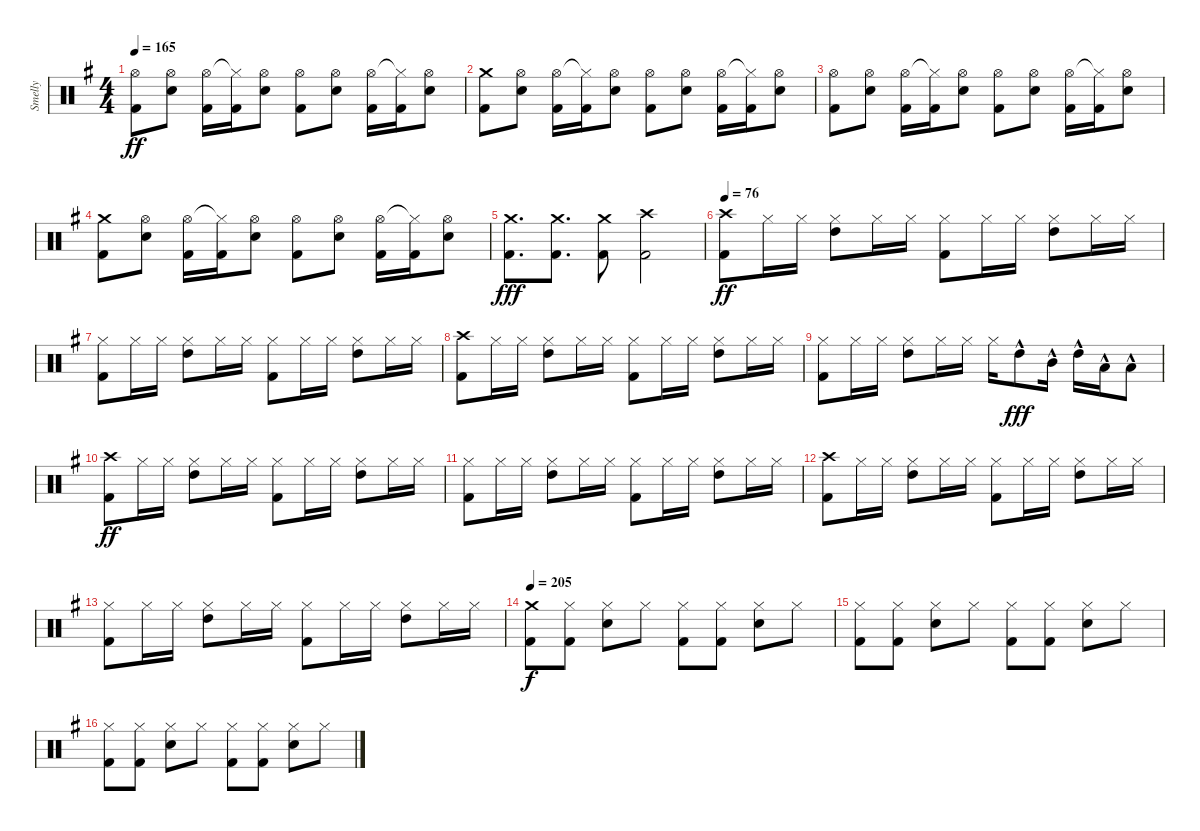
\track ("Smelly" "Smelly") {instrument percussion}
\staff {score}
\articulation defaults
\ts (4 4)
\tempo 165
\clef neutral
\ks eminor
("Hi-Hat (open)" "Kick (hit) 2").8{dy ff} ("Hi-Hat (open)" "Electric Snare (hit)").8 ("Hi-Hat (open)" "Kick (hit) 2").16 ("Hi-Hat (closed)"{t} "Kick (hit) 2").16 ("Hi-Hat (open)" "Electric Snare (hit)").8 ("Hi-Hat (open)" "Kick (hit) 2").8 ("Hi-Hat (open)" "Electric Snare (hit)").8 ("Hi-Hat (open)" "Kick (hit) 2").16 ("Hi-Hat (closed)"{t} "Kick (hit) 2").16 ("Hi-Hat (open)" "Electric Snare (hit)").8 |
("Crash medium (hit)" "Kick (hit) 2").8 ("Hi-Hat (open)" "Electric Snare (hit)").8 ("Hi-Hat (open)" "Kick (hit) 2").16 ("Hi-Hat (closed)"{t} "Kick (hit) 2").16 ("Hi-Hat (open)" "Electric Snare (hit)").8 ("Hi-Hat (open)" "Kick (hit) 2").8 ("Hi-Hat (open)" "Electric Snare (hit)").8 ("Hi-Hat (open)" "Kick (hit) 2").16 ("Hi-Hat (closed)"{t} "Kick (hit) 2").16 ("Hi-Hat (open)" "Electric Snare (hit)").8 |
("Hi-Hat (open)" "Kick (hit) 2").8 ("Hi-Hat (open)" "Electric Snare (hit)").8 ("Hi-Hat (open)" "Kick (hit) 2").16 ("Hi-Hat (closed)"{t} "Kick (hit) 2").16 ("Hi-Hat (open)" "Electric Snare (hit)").8 ("Hi-Hat (open)" "Kick (hit) 2").8 ("Hi-Hat (open)" "Electric Snare (hit)").8 ("Hi-Hat (open)" "Kick (hit) 2").16 ("Hi-Hat (closed)"{t} "Kick (hit) 2").16 ("Hi-Hat (open)" "Electric Snare (hit)").8 |
("Crash medium (hit)" "Kick (hit) 2").8 ("Hi-Hat (open)" "Electric Snare (hit)").8 ("Hi-Hat (open)" "Kick (hit) 2").16 ("Hi-Hat (closed)"{t} "Kick (hit) 2").16 ("Hi-Hat (open)" "Electric Snare (hit)").8 ("Hi-Hat (open)" "Kick (hit) 2").8 ("Hi-Hat (open)" "Electric Snare (hit)").8 ("Hi-Hat (open)" "Kick (hit) 2").16 ("Hi-Hat (closed)"{t} "Kick (hit) 2").16 ("Hi-Hat (open)" "Electric Snare (hit)").8 |
("Crash medium (hit)" "Kick (hit) 2").8{d dy fff} ("Crash medium (hit)" "Kick (hit) 2").8{d} ("Crash medium (hit)" "Kick (hit) 2").8 ("Crash high (hit)" "Kick (hit) 2").2 |
\tempo 76
("Crash high (hit)" "Kick (hit) 2").8{dy ff volume 16} "Hi-Hat (closed)".16 "Hi-Hat (closed)".16 ("Hi-Hat (closed)" "High Tom (hit)").8 "Hi-Hat (closed)".16 "Hi-Hat (closed)".16 ("Hi-Hat (closed)" "Kick (hit) 2").8 "Hi-Hat (closed)".16 "Hi-Hat (closed)".16 ("Hi-Hat (closed)" "High Tom (hit)").8 "Hi-Hat (closed)".16 "Hi-Hat (closed)".16 |
("Hi-Hat (closed)" "Kick (hit) 2").8 "Hi-Hat (closed)".16 "Hi-Hat (closed)".16 ("Hi-Hat (closed)" "High Tom (hit)").8 "Hi-Hat (closed)".16 "Hi-Hat (closed)".16 ("Hi-Hat (closed)" "Kick (hit) 2").8 "Hi-Hat (closed)".16 "Hi-Hat (closed)".16 ("Hi-Hat (closed)" "High Tom (hit)").8 "Hi-Hat (closed)".16 "Hi-Hat (closed)".16 |
("Crash high (hit)" "Kick (hit) 2").8 "Hi-Hat (closed)".16 "Hi-Hat (closed)".16 ("Hi-Hat (closed)" "High Tom (hit)").8 "Hi-Hat (closed)".16 "Hi-Hat (closed)".16 ("Hi-Hat (closed)" "Kick (hit) 2").8 "Hi-Hat (closed)".16 "Hi-Hat (closed)".16 ("Hi-Hat (closed)" "High Tom (hit)").8 "Hi-Hat (closed)".16 "Hi-Hat (closed)".16 |
("Hi-Hat (closed)" "Kick (hit) 2").8 "Hi-Hat (closed)".16 "Hi-Hat (closed)".16 ("Hi-Hat (closed)" "High Tom (hit)").8 "Hi-Hat (closed)".16 "Hi-Hat (closed)".16 "Hi-Hat (closed)".16 "High Tom (hit)"{hac}.8{dy fff} "Mid Tom (hit)"{hac}.16 "High Tom (hit)"{hac}.16 "Low Tom (hit)"{hac}.16 "Low Floor Tom (hit)"{hac}.8 |
("Crash high (hit)" "Kick (hit) 2").8{dy ff} "Hi-Hat (closed)".16 "Hi-Hat (closed)".16 ("Hi-Hat (closed)" "High Tom (hit)").8 "Hi-Hat (closed)".16 "Hi-Hat (closed)".16 ("Hi-Hat (closed)" "Kick (hit) 2").8 "Hi-Hat (closed)".16 "Hi-Hat (closed)".16 ("Hi-Hat (closed)" "High Tom (hit)").8 "Hi-Hat (closed)".16 "Hi-Hat (closed)".16 |
("Hi-Hat (closed)" "Kick (hit) 2").8 "Hi-Hat (closed)".16 "Hi-Hat (closed)".16 ("Hi-Hat (closed)" "High Tom (hit)").8 "Hi-Hat (closed)".16 "Hi-Hat (closed)".16 ("Hi-Hat (closed)" "Kick (hit) 2").8 "Hi-Hat (closed)".16 "Hi-Hat (closed)".16 ("Hi-Hat (closed)" "High Tom (hit)").8 "Hi-Hat (closed)".16 "Hi-Hat (closed)".16 |
("Crash high (hit)" "Kick (hit) 2").8 "Hi-Hat (closed)".16 "Hi-Hat (closed)".16 ("Hi-Hat (closed)" "High Tom (hit)").8 "Hi-Hat (closed)".16 "Hi-Hat (closed)".16 ("Hi-Hat (closed)" "Kick (hit) 2").8 "Hi-Hat (closed)".16 "Hi-Hat (closed)".16 ("Hi-Hat (closed)" "High Tom (hit)").8 "Hi-Hat (closed)".16 "Hi-Hat (closed)".16 |
("Hi-Hat (closed)" "Kick (hit) 2").8 "Hi-Hat (closed)".16 "Hi-Hat (closed)".16 ("Hi-Hat (closed)" "High Tom (hit)").8 "Hi-Hat (closed)".16 "Hi-Hat (closed)".16 ("Hi-Hat (closed)" "Kick (hit) 2").8 "Hi-Hat (closed)".16 "Hi-Hat (closed)".16 ("Hi-Hat (closed)" "High Tom (hit)").8 "Hi-Hat (closed)".16 "Hi-Hat (closed)".16 |
\tempo 205
("Crash medium (hit)" "Kick (hit) 2").8{dy f} ("Hi-Hat (closed)" "Kick (hit) 2").8 ("Hi-Hat (closed)" "Snare (hit) 2").8 "Hi-Hat (closed)".8 ("Hi-Hat (closed)" "Kick (hit) 2").8 ("Hi-Hat (closed)" "Kick (hit) 2").8 ("Hi-Hat (closed)" "Snare (hit) 2").8 "Hi-Hat (closed)".8 |
("Hi-Hat (closed)" "Kick (hit) 2").8 ("Hi-Hat (closed)" "Kick (hit) 2").8 ("Hi-Hat (closed)" "Snare (hit) 2").8 "Hi-Hat (closed)".8 ("Hi-Hat (closed)" "Kick (hit) 2").8 ("Hi-Hat (closed)" "Kick (hit) 2").8 ("Hi-Hat (closed)" "Snare (hit) 2").8 "Hi-Hat (closed)".8 |
("Hi-Hat (closed)" "Kick (hit) 2").8 ("Hi-Hat (closed)" "Kick (hit) 2").8 ("Hi-Hat (closed)" "Snare (hit) 2").8 "Hi-Hat (closed)".8 ("Hi-Hat (closed)" "Kick (hit) 2").8 ("Hi-Hat (closed)" "Kick (hit) 2").8 ("Hi-Hat (closed)" "Snare (hit) 2").8 "Hi-Hat (closed)".8
